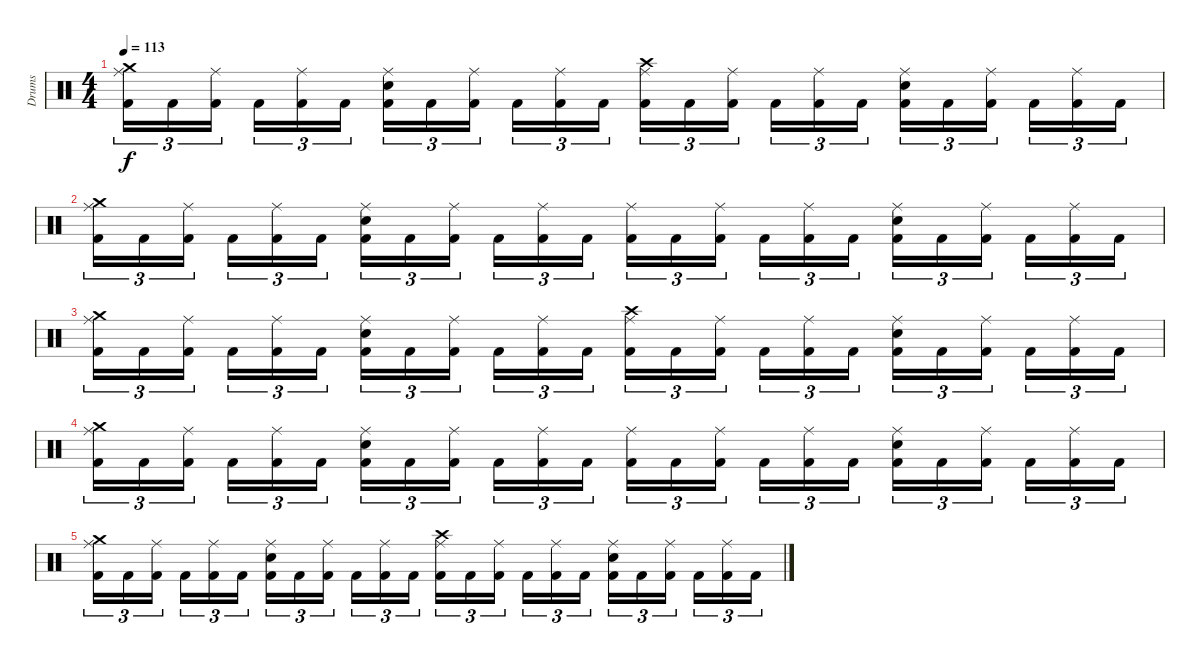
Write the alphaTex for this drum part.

\track ("Drums" "Drums") {instrument percussion}
\staff {score}
\articulation defaults
\ts (4 4)
\tempo 113
\clef neutral
\ks c
("Kick (hit) 2" "Ride (middle)" "Crash medium (hit)").16{tu (3 2) dy f} "Kick (hit) 2".16{tu (3 2)} ("Kick (hit) 2" "Ride (middle)").16{tu (3 2)} "Kick (hit) 2".16{tu (3 2)} ("Kick (hit) 2" "Ride (middle)").16{tu (3 2)} "Kick (hit) 2".16{tu (3 2)} ("Kick (hit) 2" "Snare (hit) 2" "Ride (middle)").16{tu (3 2)} "Kick (hit) 2".16{tu (3 2)} ("Kick (hit) 2" "Ride (middle)").16{tu (3 2)} "Kick (hit) 2".16{tu (3 2)} ("Kick (hit) 2" "Ride (middle)").16{tu (3 2)} "Kick (hit) 2".16{tu (3 2)} ("Kick (hit) 2" "Ride (middle)" "Crash high (hit)").16{tu (3 2)} "Kick (hit) 2".16{tu (3 2)} ("Kick (hit) 2" "Ride (middle)").16{tu (3 2)} "Kick (hit) 2".16{tu (3 2)} ("Kick (hit) 2" "Ride (middle)").16{tu (3 2)} "Kick (hit) 2".16{tu (3 2)} ("Kick (hit) 2" "Snare (hit) 2" "Ride (middle)").16{tu (3 2)} "Kick (hit) 2".16{tu (3 2)} ("Kick (hit) 2" "Ride (middle)").16{tu (3 2)} "Kick (hit) 2".16{tu (3 2)} ("Kick (hit) 2" "Ride (middle)").16{tu (3 2)} "Kick (hit) 2".16{tu (3 2)} |
("Kick (hit) 2" "Ride (middle)" "Crash medium (hit)").16{tu (3 2) volume 4} "Kick (hit) 2".16{tu (3 2)} ("Kick (hit) 2" "Ride (middle)").16{tu (3 2)} "Kick (hit) 2".16{tu (3 2)} ("Kick (hit) 2" "Ride (middle)").16{tu (3 2)} "Kick (hit) 2".16{tu (3 2)} ("Kick (hit) 2" "Snare (hit) 2" "Ride (middle)").16{tu (3 2)} "Kick (hit) 2".16{tu (3 2)} ("Kick (hit) 2" "Ride (middle)").16{tu (3 2)} "Kick (hit) 2".16{tu (3 2)} ("Kick (hit) 2" "Ride (middle)").16{tu (3 2)} "Kick (hit) 2".16{tu (3 2)} ("Kick (hit) 2" "Ride (middle)").16{tu (3 2)} "Kick (hit) 2".16{tu (3 2)} ("Kick (hit) 2" "Ride (middle)").16{tu (3 2)} "Kick (hit) 2".16{tu (3 2)} ("Kick (hit) 2" "Ride (middle)").16{tu (3 2)} "Kick (hit) 2".16{tu (3 2)} ("Kick (hit) 2" "Snare (hit) 2" "Ride (middle)").16{tu (3 2)} "Kick (hit) 2".16{tu (3 2)} ("Kick (hit) 2" "Ride (middle)").16{tu (3 2)} "Kick (hit) 2".16{tu (3 2)} ("Kick (hit) 2" "Ride (middle)").16{tu (3 2)} "Kick (hit) 2".16{tu (3 2)} |
("Kick (hit) 2" "Ride (middle)" "Crash medium (hit)").16{tu (3 2)} "Kick (hit) 2".16{tu (3 2)} ("Kick (hit) 2" "Ride (middle)").16{tu (3 2)} "Kick (hit) 2".16{tu (3 2)} ("Kick (hit) 2" "Ride (middle)").16{tu (3 2)} "Kick (hit) 2".16{tu (3 2)} ("Kick (hit) 2" "Snare (hit) 2" "Ride (middle)").16{tu (3 2)} "Kick (hit) 2".16{tu (3 2)} ("Kick (hit) 2" "Ride (middle)").16{tu (3 2)} "Kick (hit) 2".16{tu (3 2)} ("Kick (hit) 2" "Ride (middle)").16{tu (3 2)} "Kick (hit) 2".16{tu (3 2)} ("Kick (hit) 2" "Ride (middle)" "Crash high (hit)").16{tu (3 2)} "Kick (hit) 2".16{tu (3 2)} ("Kick (hit) 2" "Ride (middle)").16{tu (3 2)} "Kick (hit) 2".16{tu (3 2)} ("Kick (hit) 2" "Ride (middle)").16{tu (3 2)} "Kick (hit) 2".16{tu (3 2)} ("Kick (hit) 2" "Snare (hit) 2" "Ride (middle)").16{tu (3 2)} "Kick (hit) 2".16{tu (3 2)} ("Kick (hit) 2" "Ride (middle)").16{tu (3 2)} "Kick (hit) 2".16{tu (3 2)} ("Kick (hit) 2" "Ride (middle)").16{tu (3 2)} "Kick (hit) 2".16{tu (3 2)} |
("Kick (hit) 2" "Ride (middle)" "Crash medium (hit)").16{tu (3 2) volume 0} "Kick (hit) 2".16{tu (3 2)} ("Kick (hit) 2" "Ride (middle)").16{tu (3 2)} "Kick (hit) 2".16{tu (3 2)} ("Kick (hit) 2" "Ride (middle)").16{tu (3 2)} "Kick (hit) 2".16{tu (3 2)} ("Kick (hit) 2" "Snare (hit) 2" "Ride (middle)").16{tu (3 2)} "Kick (hit) 2".16{tu (3 2)} ("Kick (hit) 2" "Ride (middle)").16{tu (3 2)} "Kick (hit) 2".16{tu (3 2)} ("Kick (hit) 2" "Ride (middle)").16{tu (3 2)} "Kick (hit) 2".16{tu (3 2)} ("Kick (hit) 2" "Ride (middle)").16{tu (3 2)} "Kick (hit) 2".16{tu (3 2)} ("Kick (hit) 2" "Ride (middle)").16{tu (3 2)} "Kick (hit) 2".16{tu (3 2)} ("Kick (hit) 2" "Ride (middle)").16{tu (3 2)} "Kick (hit) 2".16{tu (3 2)} ("Kick (hit) 2" "Snare (hit) 2" "Ride (middle)").16{tu (3 2)} "Kick (hit) 2".16{tu (3 2)} ("Kick (hit) 2" "Ride (middle)").16{tu (3 2)} "Kick (hit) 2".16{tu (3 2)} ("Kick (hit) 2" "Ride (middle)").16{tu (3 2)} "Kick (hit) 2".16{tu (3 2)} |
("Kick (hit) 2" "Ride (middle)" "Crash medium (hit)").16{tu (3 2)} "Kick (hit) 2".16{tu (3 2)} ("Kick (hit) 2" "Ride (middle)").16{tu (3 2)} "Kick (hit) 2".16{tu (3 2)} ("Kick (hit) 2" "Ride (middle)").16{tu (3 2)} "Kick (hit) 2".16{tu (3 2)} ("Kick (hit) 2" "Snare (hit) 2" "Ride (middle)").16{tu (3 2)} "Kick (hit) 2".16{tu (3 2)} ("Kick (hit) 2" "Ride (middle)").16{tu (3 2)} "Kick (hit) 2".16{tu (3 2)} ("Kick (hit) 2" "Ride (middle)").16{tu (3 2)} "Kick (hit) 2".16{tu (3 2)} ("Kick (hit) 2" "Ride (middle)" "Crash high (hit)").16{tu (3 2)} "Kick (hit) 2".16{tu (3 2)} ("Kick (hit) 2" "Ride (middle)").16{tu (3 2)} "Kick (hit) 2".16{tu (3 2)} ("Kick (hit) 2" "Ride (middle)").16{tu (3 2)} "Kick (hit) 2".16{tu (3 2)} ("Kick (hit) 2" "Snare (hit) 2" "Ride (middle)").16{tu (3 2)} "Kick (hit) 2".16{tu (3 2)} ("Kick (hit) 2" "Ride (middle)").16{tu (3 2)} "Kick (hit) 2".16{tu (3 2)} ("Kick (hit) 2" "Ride (middle)").16{tu (3 2)} "Kick (hit) 2".16{tu (3 2)}
